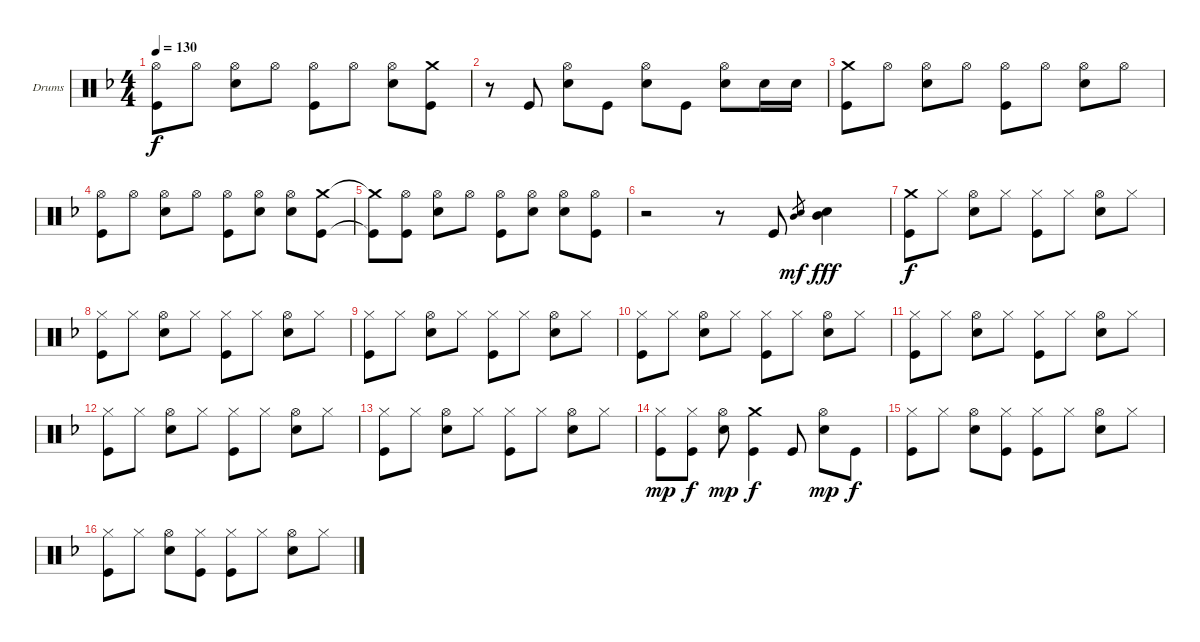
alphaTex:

\bracketExtendMode groupsimilarinstruments
\firstSystemTrackNameOrientation horizontal
\otherSystemsTrackNameOrientation horizontal
\track ("Александр Манякин" "Drums") {instrument percussion}
\staff {score}
\articulation defaults
\ts (4 4)
\tempo 130
\clef neutral
\ks f
("Hi-Hat (open)" "Kick (hit)").8{dy f} "Hi-Hat (open)".8 ("Hi-Hat (open)" "Snare (hit) 2").8 "Hi-Hat (open)".8 ("Hi-Hat (open)" "Kick (hit)").8 "Hi-Hat (open)".8 ("Hi-Hat (open)" "Snare (hit) 2").8 ("Crash medium (hit)" "Kick (hit)").8 |
r.8 "Kick (hit)".8 ("Hi-Hat (open)" "Snare (hit) 2").8 "Kick (hit)".8 ("Hi-Hat (open)" "Snare (hit) 2").8 "Kick (hit)".8 ("Hi-Hat (open)" "Snare (hit) 2").8 "Snare (hit) 2".16 "Snare (hit) 2".16 |
("Crash medium (hit)" "Kick (hit)").8 "Hi-Hat (open)".8 ("Hi-Hat (open)" "Snare (hit) 2").8 "Hi-Hat (open)".8 ("Hi-Hat (open)" "Kick (hit)").8 "Hi-Hat (open)".8 ("Hi-Hat (open)" "Snare (hit) 2").8 "Hi-Hat (open)".8 |
("Hi-Hat (open)" "Kick (hit)").8 "Hi-Hat (open)".8 ("Hi-Hat (open)" "Snare (hit) 2").8 "Hi-Hat (open)".8 ("Hi-Hat (open)" "Kick (hit)").8 ("Hi-Hat (open)" "Snare (hit) 2").8 ("Hi-Hat (open)" "Snare (hit) 2").8 ("Crash medium (hit)" "Kick (hit)").8 |
("Crash medium (hit)"{t} "Kick (hit)"{t}).8 ("Hi-Hat (open)" "Kick (hit)").8 ("Hi-Hat (open)" "Snare (hit) 2").8 "Hi-Hat (open)".8 ("Hi-Hat (open)" "Kick (hit)").8 ("Hi-Hat (open)" "Snare (hit) 2").8 ("Hi-Hat (open)" "Snare (hit) 2").8 ("Hi-Hat (open)" "Kick (hit)").8 |
r.2 r.8 "Kick (hit)".8 ("Snare (hit) 2" "Mid Tom (hit)").8{gr dy mf} ("Snare (hit) 2" "Mid Tom (hit)").4{dy fff} |
("Crash medium (hit)" "Kick (hit)").8{dy f} "Hi-Hat (closed)".8 ("Hi-Hat (open)" "Snare (hit) 2").8 "Hi-Hat (closed)".8 ("Hi-Hat (closed)" "Kick (hit)").8 "Hi-Hat (closed)".8 ("Hi-Hat (open)" "Snare (hit) 2").8 "Hi-Hat (closed)".8 |
("Hi-Hat (closed)" "Kick (hit)").8 "Hi-Hat (closed)".8 ("Hi-Hat (open)" "Snare (hit) 2").8 "Hi-Hat (closed)".8 ("Hi-Hat (closed)" "Kick (hit)").8 "Hi-Hat (closed)".8 ("Hi-Hat (open)" "Snare (hit) 2").8 "Hi-Hat (closed)".8 |
("Hi-Hat (closed)" "Kick (hit)").8 "Hi-Hat (closed)".8 ("Hi-Hat (open)" "Snare (hit) 2").8 "Hi-Hat (closed)".8 ("Hi-Hat (closed)" "Kick (hit)").8 "Hi-Hat (closed)".8 ("Hi-Hat (open)" "Snare (hit) 2").8 "Hi-Hat (closed)".8 |
("Hi-Hat (closed)" "Kick (hit)").8 "Hi-Hat (closed)".8 ("Hi-Hat (open)" "Snare (hit) 2").8 "Hi-Hat (closed)".8 ("Hi-Hat (closed)" "Kick (hit)").8 "Hi-Hat (closed)".8 ("Hi-Hat (open)" "Snare (hit) 2").8 "Hi-Hat (closed)".8 |
("Hi-Hat (closed)" "Kick (hit)").8 "Hi-Hat (closed)".8 ("Hi-Hat (open)" "Snare (hit) 2").8 "Hi-Hat (closed)".8 ("Hi-Hat (closed)" "Kick (hit)").8 "Hi-Hat (closed)".8 ("Hi-Hat (open)" "Snare (hit) 2").8 "Hi-Hat (closed)".8 |
("Hi-Hat (closed)" "Kick (hit)").8 "Hi-Hat (closed)".8 ("Hi-Hat (open)" "Snare (hit) 2").8 "Hi-Hat (closed)".8 ("Hi-Hat (closed)" "Kick (hit)").8 "Hi-Hat (closed)".8 ("Hi-Hat (open)" "Snare (hit) 2").8 "Hi-Hat (closed)".8 |
("Hi-Hat (closed)" "Kick (hit)").8 "Hi-Hat (closed)".8 ("Hi-Hat (open)" "Snare (hit) 2").8 "Hi-Hat (closed)".8 ("Hi-Hat (closed)" "Kick (hit)").8 "Hi-Hat (closed)".8 ("Hi-Hat (open)" "Snare (hit) 2").8 "Hi-Hat (closed)".8 |
("Hi-Hat (closed)" "Kick (hit)").8{dy mp} ("Hi-Hat (closed)" "Kick (hit)").8{dy f} ("Hi-Hat (open)" "Snare (hit) 2").8{dy mp} ("Crash medium (hit)" "Kick (hit)").4{dy f} "Kick (hit)".8 ("Hi-Hat (open)" "Snare (hit) 2").8{dy mp} "Kick (hit)".8{dy f} |
("Hi-Hat (closed)" "Kick (hit)").8 "Hi-Hat (closed)".8 ("Hi-Hat (open)" "Snare (hit) 2").8 ("Hi-Hat (closed)" "Kick (hit)").8 ("Hi-Hat (closed)" "Kick (hit)").8 "Hi-Hat (closed)".8 ("Hi-Hat (open)" "Snare (hit) 2").8 "Hi-Hat (closed)".8 |
("Hi-Hat (closed)" "Kick (hit)").8 "Hi-Hat (closed)".8 ("Hi-Hat (open)" "Snare (hit) 2").8 ("Hi-Hat (closed)" "Kick (hit)").8 ("Hi-Hat (closed)" "Kick (hit)").8 "Hi-Hat (closed)".8 ("Hi-Hat (open)" "Snare (hit) 2").8 "Hi-Hat (closed)".8
